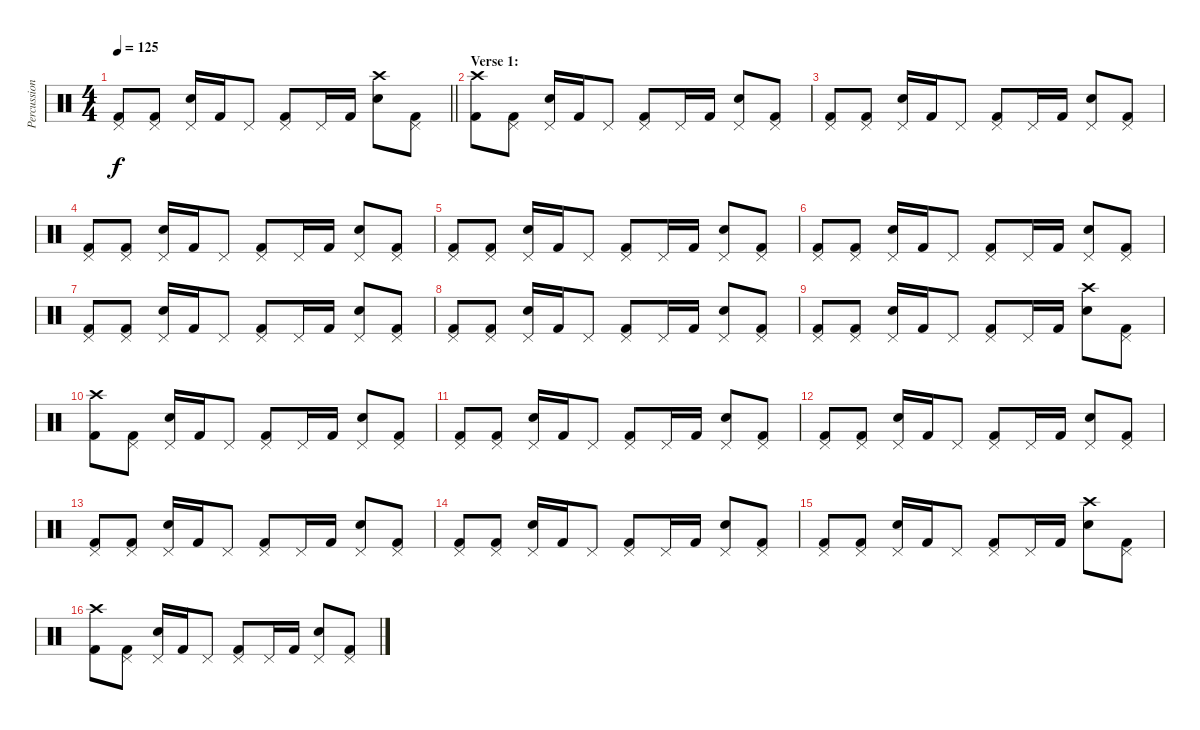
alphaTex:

\track ("Percussion" "Percussion") {instrument percussion}
\staff {score}
\articulation defaults
\ts (4 4)
\tempo 125
\clef neutral
\barLineRight lightlight
\ks c
("Pedal Hi-Hat (hit)" "Kick (hit) 2").8{dy f} ("Pedal Hi-Hat (hit)" "Kick (hit) 2").8 ("Pedal Hi-Hat (hit)" "Electric Snare (hit)").16 "Kick (hit) 2".16 "Pedal Hi-Hat (hit)".8 ("Pedal Hi-Hat (hit)" "Kick (hit) 2").8 "Pedal Hi-Hat (hit)".16 "Kick (hit) 2".16 ("Crash high (hit)" "Electric Snare (hit)").8 ("Pedal Hi-Hat (hit)" "Kick (hit) 2").8 |
\section ("" "Verse 1:")
("Crash high (hit)" "Kick (hit) 2").8 ("Pedal Hi-Hat (hit)" "Kick (hit) 2").8 ("Pedal Hi-Hat (hit)" "Electric Snare (hit)").16 "Kick (hit) 2".16 "Pedal Hi-Hat (hit)".8 ("Pedal Hi-Hat (hit)" "Kick (hit) 2").8 "Pedal Hi-Hat (hit)".16 "Kick (hit) 2".16 ("Pedal Hi-Hat (hit)" "Electric Snare (hit)").8 ("Pedal Hi-Hat (hit)" "Kick (hit) 2").8 |
("Pedal Hi-Hat (hit)" "Kick (hit) 2").8 ("Pedal Hi-Hat (hit)" "Kick (hit) 2").8 ("Pedal Hi-Hat (hit)" "Electric Snare (hit)").16 "Kick (hit) 2".16 "Pedal Hi-Hat (hit)".8 ("Pedal Hi-Hat (hit)" "Kick (hit) 2").8 "Pedal Hi-Hat (hit)".16 "Kick (hit) 2".16 ("Pedal Hi-Hat (hit)" "Electric Snare (hit)").8 ("Pedal Hi-Hat (hit)" "Kick (hit) 2").8 |
("Pedal Hi-Hat (hit)" "Kick (hit) 2").8 ("Pedal Hi-Hat (hit)" "Kick (hit) 2").8 ("Pedal Hi-Hat (hit)" "Electric Snare (hit)").16 "Kick (hit) 2".16 "Pedal Hi-Hat (hit)".8 ("Pedal Hi-Hat (hit)" "Kick (hit) 2").8 "Pedal Hi-Hat (hit)".16 "Kick (hit) 2".16 ("Pedal Hi-Hat (hit)" "Electric Snare (hit)").8 ("Pedal Hi-Hat (hit)" "Kick (hit) 2").8 |
("Pedal Hi-Hat (hit)" "Kick (hit) 2").8 ("Pedal Hi-Hat (hit)" "Kick (hit) 2").8 ("Pedal Hi-Hat (hit)" "Electric Snare (hit)").16 "Kick (hit) 2".16 "Pedal Hi-Hat (hit)".8 ("Pedal Hi-Hat (hit)" "Kick (hit) 2").8 "Pedal Hi-Hat (hit)".16 "Kick (hit) 2".16 ("Pedal Hi-Hat (hit)" "Electric Snare (hit)").8 ("Pedal Hi-Hat (hit)" "Kick (hit) 2").8 |
("Pedal Hi-Hat (hit)" "Kick (hit) 2").8 ("Pedal Hi-Hat (hit)" "Kick (hit) 2").8 ("Pedal Hi-Hat (hit)" "Electric Snare (hit)").16 "Kick (hit) 2".16 "Pedal Hi-Hat (hit)".8 ("Pedal Hi-Hat (hit)" "Kick (hit) 2").8 "Pedal Hi-Hat (hit)".16 "Kick (hit) 2".16 ("Pedal Hi-Hat (hit)" "Electric Snare (hit)").8 ("Pedal Hi-Hat (hit)" "Kick (hit) 2").8 |
("Pedal Hi-Hat (hit)" "Kick (hit) 2").8 ("Pedal Hi-Hat (hit)" "Kick (hit) 2").8 ("Pedal Hi-Hat (hit)" "Electric Snare (hit)").16 "Kick (hit) 2".16 "Pedal Hi-Hat (hit)".8 ("Pedal Hi-Hat (hit)" "Kick (hit) 2").8 "Pedal Hi-Hat (hit)".16 "Kick (hit) 2".16 ("Pedal Hi-Hat (hit)" "Electric Snare (hit)").8 ("Pedal Hi-Hat (hit)" "Kick (hit) 2").8 |
("Pedal Hi-Hat (hit)" "Kick (hit) 2").8 ("Pedal Hi-Hat (hit)" "Kick (hit) 2").8 ("Pedal Hi-Hat (hit)" "Electric Snare (hit)").16 "Kick (hit) 2".16 "Pedal Hi-Hat (hit)".8 ("Pedal Hi-Hat (hit)" "Kick (hit) 2").8 "Pedal Hi-Hat (hit)".16 "Kick (hit) 2".16 ("Pedal Hi-Hat (hit)" "Electric Snare (hit)").8 ("Pedal Hi-Hat (hit)" "Kick (hit) 2").8 |
("Pedal Hi-Hat (hit)" "Kick (hit) 2").8 ("Pedal Hi-Hat (hit)" "Kick (hit) 2").8 ("Pedal Hi-Hat (hit)" "Electric Snare (hit)").16 "Kick (hit) 2".16 "Pedal Hi-Hat (hit)".8 ("Pedal Hi-Hat (hit)" "Kick (hit) 2").8 "Pedal Hi-Hat (hit)".16 "Kick (hit) 2".16 ("Crash high (hit)" "Electric Snare (hit)").8 ("Pedal Hi-Hat (hit)" "Kick (hit) 2").8 |
("Crash high (hit)" "Kick (hit) 2").8 ("Pedal Hi-Hat (hit)" "Kick (hit) 2").8 ("Pedal Hi-Hat (hit)" "Electric Snare (hit)").16 "Kick (hit) 2".16 "Pedal Hi-Hat (hit)".8 ("Pedal Hi-Hat (hit)" "Kick (hit) 2").8 "Pedal Hi-Hat (hit)".16 "Kick (hit) 2".16 ("Pedal Hi-Hat (hit)" "Electric Snare (hit)").8 ("Pedal Hi-Hat (hit)" "Kick (hit) 2").8 |
("Pedal Hi-Hat (hit)" "Kick (hit) 2").8 ("Pedal Hi-Hat (hit)" "Kick (hit) 2").8 ("Pedal Hi-Hat (hit)" "Electric Snare (hit)").16 "Kick (hit) 2".16 "Pedal Hi-Hat (hit)".8 ("Pedal Hi-Hat (hit)" "Kick (hit) 2").8 "Pedal Hi-Hat (hit)".16 "Kick (hit) 2".16 ("Pedal Hi-Hat (hit)" "Electric Snare (hit)").8 ("Pedal Hi-Hat (hit)" "Kick (hit) 2").8 |
("Pedal Hi-Hat (hit)" "Kick (hit) 2").8 ("Pedal Hi-Hat (hit)" "Kick (hit) 2").8 ("Pedal Hi-Hat (hit)" "Electric Snare (hit)").16 "Kick (hit) 2".16 "Pedal Hi-Hat (hit)".8 ("Pedal Hi-Hat (hit)" "Kick (hit) 2").8 "Pedal Hi-Hat (hit)".16 "Kick (hit) 2".16 ("Pedal Hi-Hat (hit)" "Electric Snare (hit)").8 ("Pedal Hi-Hat (hit)" "Kick (hit) 2").8 |
("Pedal Hi-Hat (hit)" "Kick (hit) 2").8 ("Pedal Hi-Hat (hit)" "Kick (hit) 2").8 ("Pedal Hi-Hat (hit)" "Electric Snare (hit)").16 "Kick (hit) 2".16 "Pedal Hi-Hat (hit)".8 ("Pedal Hi-Hat (hit)" "Kick (hit) 2").8 "Pedal Hi-Hat (hit)".16 "Kick (hit) 2".16 ("Pedal Hi-Hat (hit)" "Electric Snare (hit)").8 ("Pedal Hi-Hat (hit)" "Kick (hit) 2").8 |
("Pedal Hi-Hat (hit)" "Kick (hit) 2").8 ("Pedal Hi-Hat (hit)" "Kick (hit) 2").8 ("Pedal Hi-Hat (hit)" "Electric Snare (hit)").16 "Kick (hit) 2".16 "Pedal Hi-Hat (hit)".8 ("Pedal Hi-Hat (hit)" "Kick (hit) 2").8 "Pedal Hi-Hat (hit)".16 "Kick (hit) 2".16 ("Pedal Hi-Hat (hit)" "Electric Snare (hit)").8 ("Pedal Hi-Hat (hit)" "Kick (hit) 2").8 |
("Pedal Hi-Hat (hit)" "Kick (hit) 2").8 ("Pedal Hi-Hat (hit)" "Kick (hit) 2").8 ("Pedal Hi-Hat (hit)" "Electric Snare (hit)").16 "Kick (hit) 2".16 "Pedal Hi-Hat (hit)".8 ("Pedal Hi-Hat (hit)" "Kick (hit) 2").8 "Pedal Hi-Hat (hit)".16 "Kick (hit) 2".16 ("Crash high (hit)" "Electric Snare (hit)").8 ("Pedal Hi-Hat (hit)" "Kick (hit) 2").8 |
("Crash high (hit)" "Kick (hit) 2").8 ("Pedal Hi-Hat (hit)" "Kick (hit) 2").8 ("Pedal Hi-Hat (hit)" "Electric Snare (hit)").16 "Kick (hit) 2".16 "Pedal Hi-Hat (hit)".8 ("Pedal Hi-Hat (hit)" "Kick (hit) 2").8 "Pedal Hi-Hat (hit)".16 "Kick (hit) 2".16 ("Pedal Hi-Hat (hit)" "Electric Snare (hit)").8 ("Pedal Hi-Hat (hit)" "Kick (hit) 2").8
